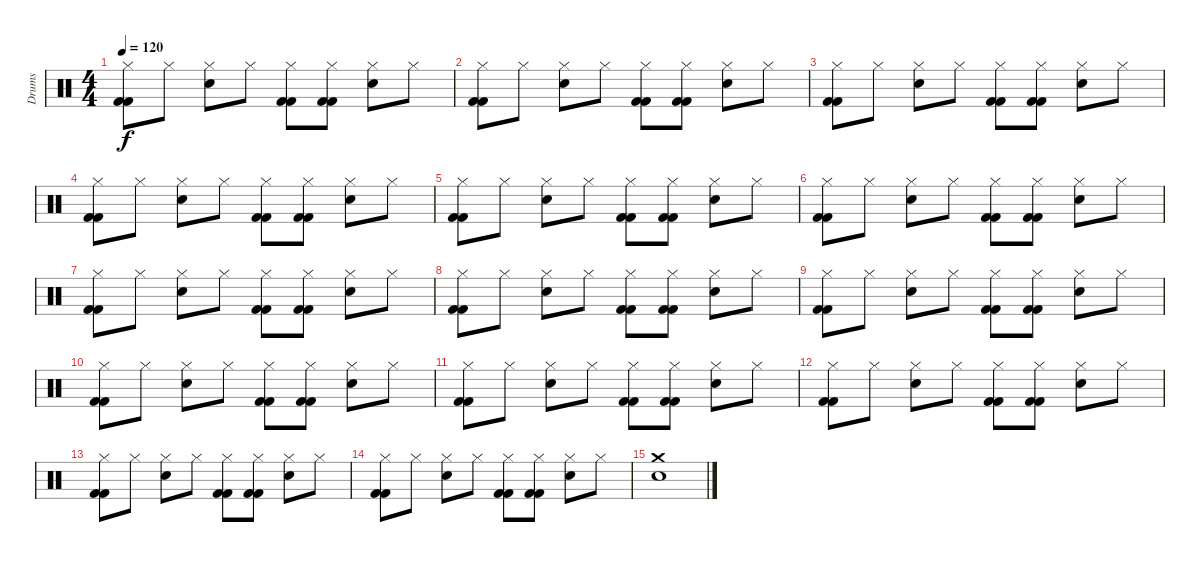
\track ("Drums" "Drums") {instrument percussion}
\staff {score}
\articulation defaults
\ts (4 4)
\tempo 120
\clef neutral
\ks c
("Kick (hit) 2" "Hi-Hat (closed)" "Kick (hit) 2").8{dy f} "Hi-Hat (closed)".8 ("Snare (hit) 2" "Hi-Hat (closed)").8 "Hi-Hat (closed)".8 ("Kick (hit) 2" "Hi-Hat (closed)" "Kick (hit) 2").8 ("Kick (hit) 2" "Hi-Hat (closed)" "Kick (hit) 2").8 ("Snare (hit) 2" "Hi-Hat (closed)").8 "Hi-Hat (closed)".8 |
("Kick (hit) 2" "Hi-Hat (closed)" "Kick (hit) 2").8 "Hi-Hat (closed)".8 ("Snare (hit) 2" "Hi-Hat (closed)").8 "Hi-Hat (closed)".8 ("Kick (hit) 2" "Hi-Hat (closed)" "Kick (hit) 2").8 ("Kick (hit) 2" "Hi-Hat (closed)" "Kick (hit) 2").8 ("Snare (hit) 2" "Hi-Hat (closed)").8 "Hi-Hat (closed)".8 |
("Kick (hit) 2" "Hi-Hat (closed)" "Kick (hit) 2").8 "Hi-Hat (closed)".8 ("Snare (hit) 2" "Hi-Hat (closed)").8 "Hi-Hat (closed)".8 ("Kick (hit) 2" "Hi-Hat (closed)" "Kick (hit) 2").8 ("Kick (hit) 2" "Hi-Hat (closed)" "Kick (hit) 2").8 ("Snare (hit) 2" "Hi-Hat (closed)").8 "Hi-Hat (closed)".8 |
("Kick (hit) 2" "Hi-Hat (closed)" "Kick (hit) 2").8 "Hi-Hat (closed)".8 ("Snare (hit) 2" "Hi-Hat (closed)").8 "Hi-Hat (closed)".8 ("Kick (hit) 2" "Hi-Hat (closed)" "Kick (hit) 2").8 ("Kick (hit) 2" "Hi-Hat (closed)" "Kick (hit) 2").8 ("Snare (hit) 2" "Hi-Hat (closed)").8 "Hi-Hat (closed)".8 |
("Kick (hit) 2" "Hi-Hat (closed)" "Kick (hit) 2").8 "Hi-Hat (closed)".8 ("Snare (hit) 2" "Hi-Hat (closed)").8 "Hi-Hat (closed)".8 ("Kick (hit) 2" "Hi-Hat (closed)" "Kick (hit) 2").8 ("Kick (hit) 2" "Hi-Hat (closed)" "Kick (hit) 2").8 ("Snare (hit) 2" "Hi-Hat (closed)").8 "Hi-Hat (closed)".8 |
("Kick (hit) 2" "Hi-Hat (closed)" "Kick (hit) 2").8 "Hi-Hat (closed)".8 ("Snare (hit) 2" "Hi-Hat (closed)").8 "Hi-Hat (closed)".8 ("Kick (hit) 2" "Hi-Hat (closed)" "Kick (hit) 2").8 ("Kick (hit) 2" "Hi-Hat (closed)" "Kick (hit) 2").8 ("Snare (hit) 2" "Hi-Hat (closed)").8 "Hi-Hat (closed)".8 |
("Kick (hit) 2" "Hi-Hat (closed)" "Kick (hit) 2").8 "Hi-Hat (closed)".8 ("Snare (hit) 2" "Hi-Hat (closed)").8 "Hi-Hat (closed)".8 ("Kick (hit) 2" "Hi-Hat (closed)" "Kick (hit) 2").8 ("Kick (hit) 2" "Hi-Hat (closed)" "Kick (hit) 2").8 ("Snare (hit) 2" "Hi-Hat (closed)").8 "Hi-Hat (closed)".8 |
("Kick (hit) 2" "Hi-Hat (closed)" "Kick (hit) 2").8 "Hi-Hat (closed)".8 ("Snare (hit) 2" "Hi-Hat (closed)").8 "Hi-Hat (closed)".8 ("Kick (hit) 2" "Hi-Hat (closed)" "Kick (hit) 2").8 ("Kick (hit) 2" "Hi-Hat (closed)" "Kick (hit) 2").8 ("Snare (hit) 2" "Hi-Hat (closed)").8 "Hi-Hat (closed)".8 |
("Kick (hit) 2" "Hi-Hat (closed)" "Kick (hit) 2").8 "Hi-Hat (closed)".8 ("Snare (hit) 2" "Hi-Hat (closed)").8 "Hi-Hat (closed)".8 ("Kick (hit) 2" "Hi-Hat (closed)" "Kick (hit) 2").8 ("Kick (hit) 2" "Hi-Hat (closed)" "Kick (hit) 2").8 ("Snare (hit) 2" "Hi-Hat (closed)").8 "Hi-Hat (closed)".8 |
("Kick (hit) 2" "Hi-Hat (closed)" "Kick (hit) 2").8 "Hi-Hat (closed)".8 ("Snare (hit) 2" "Hi-Hat (closed)").8 "Hi-Hat (closed)".8 ("Kick (hit) 2" "Hi-Hat (closed)" "Kick (hit) 2").8 ("Kick (hit) 2" "Hi-Hat (closed)" "Kick (hit) 2").8 ("Snare (hit) 2" "Hi-Hat (closed)").8 "Hi-Hat (closed)".8 |
("Kick (hit) 2" "Hi-Hat (closed)" "Kick (hit) 2").8 "Hi-Hat (closed)".8 ("Snare (hit) 2" "Hi-Hat (closed)").8 "Hi-Hat (closed)".8 ("Kick (hit) 2" "Hi-Hat (closed)" "Kick (hit) 2").8 ("Kick (hit) 2" "Hi-Hat (closed)" "Kick (hit) 2").8 ("Snare (hit) 2" "Hi-Hat (closed)").8 "Hi-Hat (closed)".8 |
("Kick (hit) 2" "Hi-Hat (closed)" "Kick (hit) 2").8 "Hi-Hat (closed)".8 ("Snare (hit) 2" "Hi-Hat (closed)").8 "Hi-Hat (closed)".8 ("Kick (hit) 2" "Hi-Hat (closed)" "Kick (hit) 2").8 ("Kick (hit) 2" "Hi-Hat (closed)" "Kick (hit) 2").8 ("Snare (hit) 2" "Hi-Hat (closed)").8 "Hi-Hat (closed)".8 |
("Kick (hit) 2" "Hi-Hat (closed)" "Kick (hit) 2").8 "Hi-Hat (closed)".8 ("Snare (hit) 2" "Hi-Hat (closed)").8 "Hi-Hat (closed)".8 ("Kick (hit) 2" "Hi-Hat (closed)" "Kick (hit) 2").8 ("Kick (hit) 2" "Hi-Hat (closed)" "Kick (hit) 2").8 ("Snare (hit) 2" "Hi-Hat (closed)").8 "Hi-Hat (closed)".8 |
("Kick (hit) 2" "Hi-Hat (closed)" "Kick (hit) 2").8 "Hi-Hat (closed)".8 ("Snare (hit) 2" "Hi-Hat (closed)").8 "Hi-Hat (closed)".8 ("Kick (hit) 2" "Hi-Hat (closed)" "Kick (hit) 2").8 ("Kick (hit) 2" "Hi-Hat (closed)" "Kick (hit) 2").8 ("Snare (hit) 2" "Hi-Hat (closed)").8 "Hi-Hat (closed)".8 |
("Crash medium (hit)" "Snare (hit) 2").1
